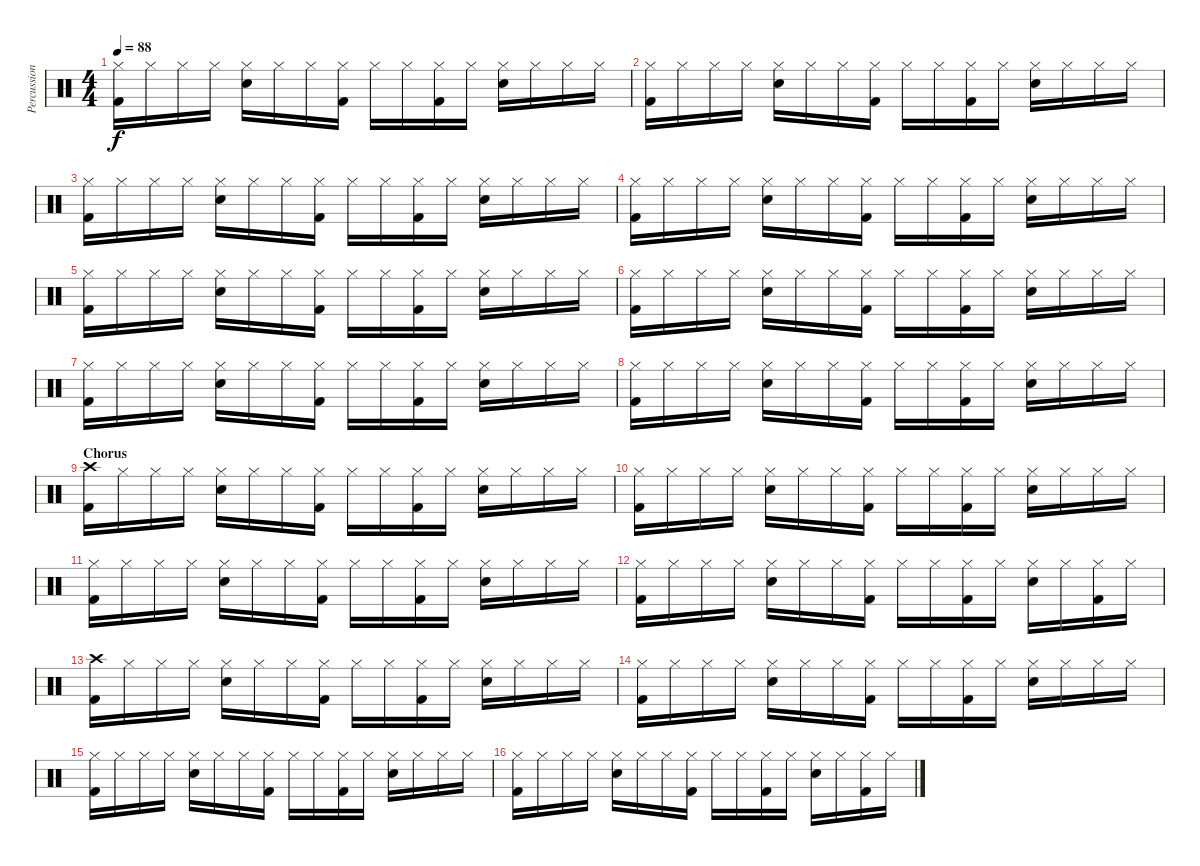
\track ("Percussion" "Percussion") {instrument percussion}
\staff {score}
\articulation defaults
\ts (4 4)
\tempo 88
\clef neutral
\ks c
("Hi-Hat (closed)" "Kick (hit) 2").16{dy f} "Hi-Hat (closed)".16 "Hi-Hat (closed)".16 "Hi-Hat (closed)".16 ("Hi-Hat (closed)" "Electric Snare (hit)").16 "Hi-Hat (closed)".16 "Hi-Hat (closed)".16 ("Hi-Hat (closed)" "Kick (hit) 2").16 "Hi-Hat (closed)".16 "Hi-Hat (closed)".16 ("Hi-Hat (closed)" "Kick (hit) 2").16 "Hi-Hat (closed)".16 ("Hi-Hat (closed)" "Electric Snare (hit)").16 "Hi-Hat (closed)".16 "Hi-Hat (closed)".16 "Hi-Hat (closed)".16 |
("Hi-Hat (closed)" "Kick (hit) 2").16 "Hi-Hat (closed)".16 "Hi-Hat (closed)".16 "Hi-Hat (closed)".16 ("Hi-Hat (closed)" "Electric Snare (hit)").16 "Hi-Hat (closed)".16 "Hi-Hat (closed)".16 ("Hi-Hat (closed)" "Kick (hit) 2").16 "Hi-Hat (closed)".16 "Hi-Hat (closed)".16 ("Hi-Hat (closed)" "Kick (hit) 2").16 "Hi-Hat (closed)".16 ("Hi-Hat (closed)" "Electric Snare (hit)").16 "Hi-Hat (closed)".16 "Hi-Hat (closed)".16 "Hi-Hat (closed)".16 |
("Hi-Hat (closed)" "Kick (hit) 2").16 "Hi-Hat (closed)".16 "Hi-Hat (closed)".16 "Hi-Hat (closed)".16 ("Hi-Hat (closed)" "Electric Snare (hit)").16 "Hi-Hat (closed)".16 "Hi-Hat (closed)".16 ("Hi-Hat (closed)" "Kick (hit) 2").16 "Hi-Hat (closed)".16 "Hi-Hat (closed)".16 ("Hi-Hat (closed)" "Kick (hit) 2").16 "Hi-Hat (closed)".16 ("Hi-Hat (closed)" "Electric Snare (hit)").16 "Hi-Hat (closed)".16 "Hi-Hat (closed)".16 "Hi-Hat (closed)".16 |
("Hi-Hat (closed)" "Kick (hit) 2").16 "Hi-Hat (closed)".16 "Hi-Hat (closed)".16 "Hi-Hat (closed)".16 ("Hi-Hat (closed)" "Electric Snare (hit)").16 "Hi-Hat (closed)".16 "Hi-Hat (closed)".16 ("Hi-Hat (closed)" "Kick (hit) 2").16 "Hi-Hat (closed)".16 "Hi-Hat (closed)".16 ("Hi-Hat (closed)" "Kick (hit) 2").16 "Hi-Hat (closed)".16 ("Hi-Hat (closed)" "Electric Snare (hit)").16 "Hi-Hat (closed)".16 "Hi-Hat (closed)".16 "Hi-Hat (closed)".16 |
("Hi-Hat (closed)" "Kick (hit) 2").16 "Hi-Hat (closed)".16 "Hi-Hat (closed)".16 "Hi-Hat (closed)".16 ("Hi-Hat (closed)" "Electric Snare (hit)").16 "Hi-Hat (closed)".16 "Hi-Hat (closed)".16 ("Hi-Hat (closed)" "Kick (hit) 2").16 "Hi-Hat (closed)".16 "Hi-Hat (closed)".16 ("Hi-Hat (closed)" "Kick (hit) 2").16 "Hi-Hat (closed)".16 ("Hi-Hat (closed)" "Electric Snare (hit)").16 "Hi-Hat (closed)".16 "Hi-Hat (closed)".16 "Hi-Hat (closed)".16 |
("Hi-Hat (closed)" "Kick (hit) 2").16 "Hi-Hat (closed)".16 "Hi-Hat (closed)".16 "Hi-Hat (closed)".16 ("Hi-Hat (closed)" "Electric Snare (hit)").16 "Hi-Hat (closed)".16 "Hi-Hat (closed)".16 ("Hi-Hat (closed)" "Kick (hit) 2").16 "Hi-Hat (closed)".16 "Hi-Hat (closed)".16 ("Hi-Hat (closed)" "Kick (hit) 2").16 "Hi-Hat (closed)".16 ("Hi-Hat (closed)" "Electric Snare (hit)").16 "Hi-Hat (closed)".16 "Hi-Hat (closed)".16 "Hi-Hat (closed)".16 |
("Hi-Hat (closed)" "Kick (hit) 2").16 "Hi-Hat (closed)".16 "Hi-Hat (closed)".16 "Hi-Hat (closed)".16 ("Hi-Hat (closed)" "Electric Snare (hit)").16 "Hi-Hat (closed)".16 "Hi-Hat (closed)".16 ("Hi-Hat (closed)" "Kick (hit) 2").16 "Hi-Hat (closed)".16 "Hi-Hat (closed)".16 ("Hi-Hat (closed)" "Kick (hit) 2").16 "Hi-Hat (closed)".16 ("Hi-Hat (closed)" "Electric Snare (hit)").16 "Hi-Hat (closed)".16 "Hi-Hat (closed)".16 "Hi-Hat (closed)".16 |
("Hi-Hat (closed)" "Kick (hit) 2").16 "Hi-Hat (closed)".16 "Hi-Hat (closed)".16 "Hi-Hat (closed)".16 ("Hi-Hat (closed)" "Electric Snare (hit)").16 "Hi-Hat (closed)".16 "Hi-Hat (closed)".16 ("Hi-Hat (closed)" "Kick (hit) 2").16 "Hi-Hat (closed)".16 "Hi-Hat (closed)".16 ("Hi-Hat (closed)" "Kick (hit) 2").16 "Hi-Hat (closed)".16 ("Hi-Hat (closed)" "Electric Snare (hit)").16 "Hi-Hat (closed)".16 "Hi-Hat (closed)".16 "Hi-Hat (closed)".16 |
\section ("" "Chorus")
("Crash high (hit)" "Kick (hit) 2").16 "Hi-Hat (closed)".16 "Hi-Hat (closed)".16 "Hi-Hat (closed)".16 ("Hi-Hat (closed)" "Electric Snare (hit)").16 "Hi-Hat (closed)".16 "Hi-Hat (closed)".16 ("Hi-Hat (closed)" "Kick (hit) 2").16 "Hi-Hat (closed)".16 "Hi-Hat (closed)".16 ("Hi-Hat (closed)" "Kick (hit) 2").16 "Hi-Hat (closed)".16 ("Hi-Hat (closed)" "Electric Snare (hit)").16 "Hi-Hat (closed)".16 "Hi-Hat (closed)".16 "Hi-Hat (closed)".16 |
("Hi-Hat (closed)" "Kick (hit) 2").16 "Hi-Hat (closed)".16 "Hi-Hat (closed)".16 "Hi-Hat (closed)".16 ("Hi-Hat (closed)" "Electric Snare (hit)").16 "Hi-Hat (closed)".16 "Hi-Hat (closed)".16 ("Hi-Hat (closed)" "Kick (hit) 2").16 "Hi-Hat (closed)".16 "Hi-Hat (closed)".16 ("Hi-Hat (closed)" "Kick (hit) 2").16 "Hi-Hat (closed)".16 ("Hi-Hat (closed)" "Electric Snare (hit)").16 "Hi-Hat (closed)".16 "Hi-Hat (closed)".16 "Hi-Hat (closed)".16 |
("Hi-Hat (closed)" "Kick (hit) 2").16 "Hi-Hat (closed)".16 "Hi-Hat (closed)".16 "Hi-Hat (closed)".16 ("Hi-Hat (closed)" "Electric Snare (hit)").16 "Hi-Hat (closed)".16 "Hi-Hat (closed)".16 ("Hi-Hat (closed)" "Kick (hit) 2").16 "Hi-Hat (closed)".16 "Hi-Hat (closed)".16 ("Hi-Hat (closed)" "Kick (hit) 2").16 "Hi-Hat (closed)".16 ("Hi-Hat (closed)" "Electric Snare (hit)").16 "Hi-Hat (closed)".16 "Hi-Hat (closed)".16 "Hi-Hat (closed)".16 |
("Hi-Hat (closed)" "Kick (hit) 2").16 "Hi-Hat (closed)".16 "Hi-Hat (closed)".16 "Hi-Hat (closed)".16 ("Hi-Hat (closed)" "Electric Snare (hit)").16 "Hi-Hat (closed)".16 "Hi-Hat (closed)".16 ("Hi-Hat (closed)" "Kick (hit) 2").16 "Hi-Hat (closed)".16 "Hi-Hat (closed)".16 ("Hi-Hat (closed)" "Kick (hit) 2").16 "Hi-Hat (closed)".16 ("Hi-Hat (closed)" "Electric Snare (hit)").16 "Hi-Hat (closed)".16 ("Hi-Hat (closed)" "Kick (hit) 2").16 "Hi-Hat (closed)".16 |
("Crash high (hit)" "Kick (hit) 2").16 "Hi-Hat (closed)".16 "Hi-Hat (closed)".16 "Hi-Hat (closed)".16 ("Hi-Hat (closed)" "Electric Snare (hit)").16 "Hi-Hat (closed)".16 "Hi-Hat (closed)".16 ("Hi-Hat (closed)" "Kick (hit) 2").16 "Hi-Hat (closed)".16 "Hi-Hat (closed)".16 ("Hi-Hat (closed)" "Kick (hit) 2").16 "Hi-Hat (closed)".16 ("Hi-Hat (closed)" "Electric Snare (hit)").16 "Hi-Hat (closed)".16 "Hi-Hat (closed)".16 "Hi-Hat (closed)".16 |
("Hi-Hat (closed)" "Kick (hit) 2").16 "Hi-Hat (closed)".16 "Hi-Hat (closed)".16 "Hi-Hat (closed)".16 ("Hi-Hat (closed)" "Electric Snare (hit)").16 "Hi-Hat (closed)".16 "Hi-Hat (closed)".16 ("Hi-Hat (closed)" "Kick (hit) 2").16 "Hi-Hat (closed)".16 "Hi-Hat (closed)".16 ("Hi-Hat (closed)" "Kick (hit) 2").16 "Hi-Hat (closed)".16 ("Hi-Hat (closed)" "Electric Snare (hit)").16 "Hi-Hat (closed)".16 "Hi-Hat (closed)".16 "Hi-Hat (closed)".16 |
("Hi-Hat (closed)" "Kick (hit) 2").16 "Hi-Hat (closed)".16 "Hi-Hat (closed)".16 "Hi-Hat (closed)".16 ("Hi-Hat (closed)" "Electric Snare (hit)").16 "Hi-Hat (closed)".16 "Hi-Hat (closed)".16 ("Hi-Hat (closed)" "Kick (hit) 2").16 "Hi-Hat (closed)".16 "Hi-Hat (closed)".16 ("Hi-Hat (closed)" "Kick (hit) 2").16 "Hi-Hat (closed)".16 ("Hi-Hat (closed)" "Electric Snare (hit)").16 "Hi-Hat (closed)".16 "Hi-Hat (closed)".16 "Hi-Hat (closed)".16 |
("Hi-Hat (closed)" "Kick (hit) 2").16 "Hi-Hat (closed)".16 "Hi-Hat (closed)".16 "Hi-Hat (closed)".16 ("Hi-Hat (closed)" "Electric Snare (hit)").16 "Hi-Hat (closed)".16 "Hi-Hat (closed)".16 ("Hi-Hat (closed)" "Kick (hit) 2").16 "Hi-Hat (closed)".16 "Hi-Hat (closed)".16 ("Hi-Hat (closed)" "Kick (hit) 2").16 "Hi-Hat (closed)".16 ("Hi-Hat (closed)" "Electric Snare (hit)").16 "Hi-Hat (closed)".16 ("Hi-Hat (closed)" "Kick (hit) 2").16 "Hi-Hat (closed)".16
